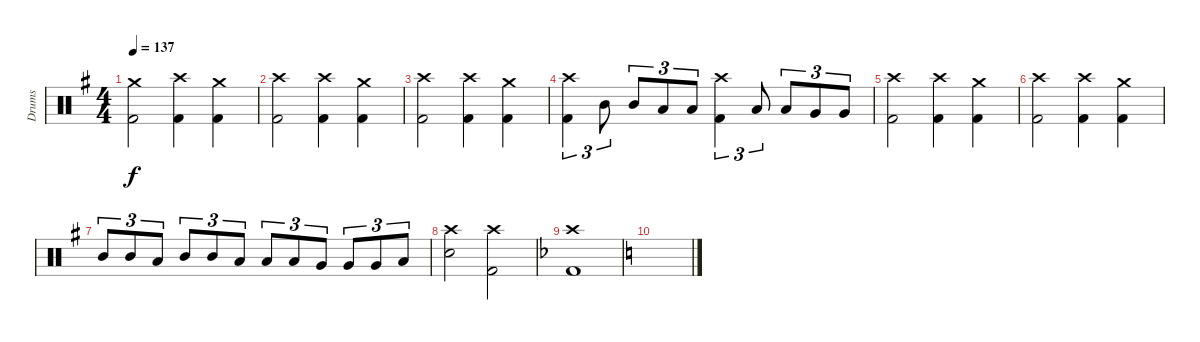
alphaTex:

\track ("Drums" "Drums") {mute instrument percussion}
\staff {score}
\articulation defaults
\ts (4 4)
\tempo 137
\clef neutral
\ks g
("Crash medium (hit)" "Kick (hit) 2").2{dy f} ("Crash high (hit)" "Kick (hit) 2").4 ("Crash medium (hit)" "Kick (hit) 2").4 |
("Crash high (hit)" "Kick (hit) 2").2 ("Crash high (hit)" "Kick (hit) 2").4 ("Crash medium (hit)" "Kick (hit) 2").4 |
("Crash high (hit)" "Kick (hit) 2").2 ("Crash high (hit)" "Kick (hit) 2").4 ("Crash medium (hit)" "Kick (hit) 2").4 |
("Crash high (hit)" "Kick (hit) 2").4{tu (3 2)} "Mid Tom (hit)".8{tu (3 2)} "Mid Tom (hit)".8{tu (3 2)} "Low Tom (hit)".8{tu (3 2)} "Low Tom (hit)".8{tu (3 2)} ("Crash high (hit)" "Kick (hit) 2").4{tu (3 2)} "Low Tom (hit)".8{tu (3 2)} "Low Tom (hit)".8{tu (3 2)} "Very Low Tom (hit)".8{tu (3 2)} "Very Low Tom (hit)".8{tu (3 2)} |
("Crash high (hit)" "Kick (hit) 2").2 ("Crash high (hit)" "Kick (hit) 2").4 ("Crash medium (hit)" "Kick (hit) 2").4 |
("Crash high (hit)" "Kick (hit) 2").2 ("Crash high (hit)" "Kick (hit) 2").4 ("Crash medium (hit)" "Kick (hit) 2").4 |
"Mid Tom (hit)".8{tu (3 2)} "Mid Tom (hit)".8{tu (3 2)} "Low Tom (hit)".8{tu (3 2)} "Mid Tom (hit)".8{tu (3 2)} "Mid Tom (hit)".8{tu (3 2)} "Low Tom (hit)".8{tu (3 2)} "Low Tom (hit)".8{tu (3 2)} "Low Tom (hit)".8{tu (3 2)} "Very Low Tom (hit)".8{tu (3 2)} "Very Low Tom (hit)".8{tu (3 2)} "Very Low Tom (hit)".8{tu (3 2)} "Low Floor Tom (hit)".8{tu (3 2)} |
("Crash high (hit)" "Snare (hit) 2").2 ("Crash high (hit)" "Kick (hit) 2").2 |
\ks f
("Crash high (hit)" "Kick (hit) 2").1 |
\ks c
